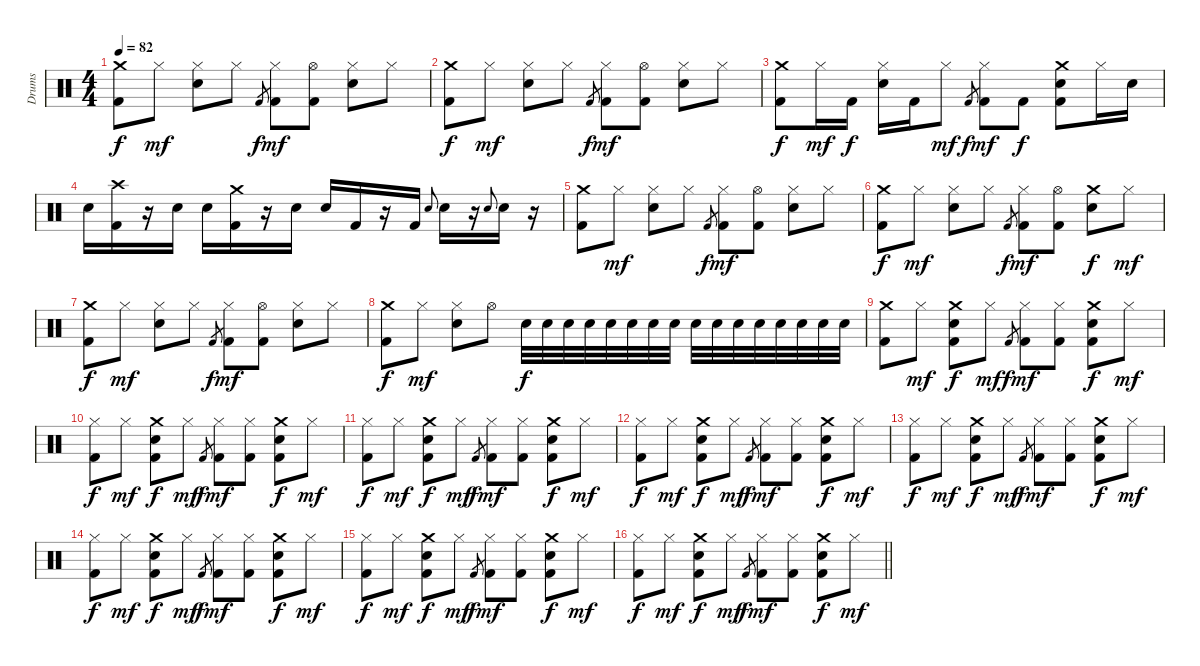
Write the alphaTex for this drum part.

\track ("Drums" "Drums") {instrument percussion}
\staff {score}
\articulation defaults
\ts (4 4)
\tempo 82
\clef neutral
\ks c
("Crash medium (hit)" "Kick (hit) 2").8{dy f} "Hi-Hat (closed)".8{dy mf} ("Hi-Hat (closed)" "Snare (hit) 2").8 "Hi-Hat (closed)".8 "Kick (hit) 2".8{gr dy f} ("Hi-Hat (closed)" "Kick (hit) 2").8{dy mf} ("Hi-Hat (open)" "Kick (hit) 2").8 ("Hi-Hat (closed)" "Snare (hit) 2").8 "Hi-Hat (closed)".8 |
("Crash medium (hit)" "Kick (hit) 2").8{dy f} "Hi-Hat (closed)".8{dy mf} ("Hi-Hat (closed)" "Snare (hit) 2").8 "Hi-Hat (closed)".8 "Kick (hit) 2".8{gr dy f} ("Hi-Hat (closed)" "Kick (hit) 2").8{dy mf} ("Hi-Hat (open)" "Kick (hit) 2").8 ("Hi-Hat (closed)" "Snare (hit) 2").8 "Hi-Hat (closed)".8 |
("Crash medium (hit)" "Kick (hit) 2").8{dy f} "Hi-Hat (closed)".16{dy mf} "Kick (hit) 2".16{dy f} ("Hi-Hat (closed)" "Snare (hit) 2").16 "Kick (hit) 2".16 "Hi-Hat (closed)".8{dy mf} "Kick (hit) 2".8{gr dy f} ("Hi-Hat (closed)" "Kick (hit) 2").8{dy mf} "Kick (hit) 2".8{dy f} ("Crash medium (hit)" "Snare (hit) 2" "Kick (hit) 2").8 "Hi-Hat (closed)".16 "Snare (hit) 2".16 |
"Snare (hit) 2".16 ("Crash high (hit)" "Kick (hit) 2").16 r.16 "Snare (hit) 2".16 "Snare (hit) 2".16 ("Crash medium (hit)" "Kick (hit) 2").16 r.16 "Snare (hit) 2".16 "Snare (hit) 2".16 "Kick (hit) 2".16 r.16 "Kick (hit) 2".16 "Snare (hit) 2".8{gr onbeat} "Snare (hit) 2".16 r.16 "Snare (hit) 2".8{gr onbeat} "Snare (hit) 2".16 r.16 |
("Crash medium (hit)" "Kick (hit) 2").8 "Hi-Hat (closed)".8{dy mf} ("Hi-Hat (closed)" "Snare (hit) 2").8 "Hi-Hat (closed)".8 "Kick (hit) 2".8{gr dy f} ("Hi-Hat (closed)" "Kick (hit) 2").8{dy mf} ("Hi-Hat (open)" "Kick (hit) 2").8 ("Hi-Hat (closed)" "Snare (hit) 2").8 "Hi-Hat (closed)".8 |
("Crash medium (hit)" "Kick (hit) 2").8{dy f} "Hi-Hat (closed)".8{dy mf} ("Hi-Hat (closed)" "Snare (hit) 2").8 "Hi-Hat (closed)".8 "Kick (hit) 2".8{gr dy f} ("Hi-Hat (closed)" "Kick (hit) 2").8{dy mf} ("Hi-Hat (open)" "Kick (hit) 2").8 ("Crash medium (hit)" "Snare (hit) 2").8{dy f} "Hi-Hat (closed)".8{dy mf} |
("Crash medium (hit)" "Kick (hit) 2").8{dy f} "Hi-Hat (closed)".8{dy mf} ("Hi-Hat (closed)" "Snare (hit) 2").8 "Hi-Hat (closed)".8 "Kick (hit) 2".8{gr dy f} ("Hi-Hat (closed)" "Kick (hit) 2").8{dy mf} ("Hi-Hat (open)" "Kick (hit) 2").8 ("Hi-Hat (closed)" "Snare (hit) 2").8 "Hi-Hat (closed)".8 |
("Crash medium (hit)" "Kick (hit) 2").8{dy f} "Hi-Hat (closed)".8{dy mf} ("Hi-Hat (closed)" "Snare (hit) 2").8 "Hi-Hat (open)".8 "Snare (hit) 2".32{dy f} "Snare (hit) 2".32 "Snare (hit) 2".32 "Snare (hit) 2".32 "Snare (hit) 2".32 "Snare (hit) 2".32 "Snare (hit) 2".32 "Snare (hit) 2".32 "Snare (hit) 2".32 "Snare (hit) 2".32 "Snare (hit) 2".32 "Snare (hit) 2".32 "Snare (hit) 2".32 "Snare (hit) 2".32 "Snare (hit) 2".32 "Snare (hit) 2".32 |
("Crash medium (hit)" "Kick (hit) 2").8 "Hi-Hat (closed)".8{dy mf} ("Crash medium (hit)" "Snare (hit) 2" "Kick (hit) 2").8{dy f} "Hi-Hat (closed)".8{dy mf} "Kick (hit) 2".8{gr dy f} ("Hi-Hat (closed)" "Kick (hit) 2").8{dy mf} ("Hi-Hat (closed)" "Kick (hit) 2").8 ("Crash medium (hit)" "Snare (hit) 2" "Kick (hit) 2").8{dy f} "Hi-Hat (closed)".8{dy mf} |
("Hi-Hat (closed)" "Kick (hit) 2").8{dy f} "Hi-Hat (closed)".8{dy mf} ("Crash medium (hit)" "Snare (hit) 2" "Kick (hit) 2").8{dy f} "Hi-Hat (closed)".8{dy mf} "Kick (hit) 2".8{gr dy f} ("Hi-Hat (closed)" "Kick (hit) 2").8{dy mf} ("Hi-Hat (closed)" "Kick (hit) 2").8 ("Crash medium (hit)" "Snare (hit) 2" "Kick (hit) 2").8{dy f} "Hi-Hat (closed)".8{dy mf} |
("Hi-Hat (closed)" "Kick (hit) 2").8{dy f} "Hi-Hat (closed)".8{dy mf} ("Crash medium (hit)" "Snare (hit) 2" "Kick (hit) 2").8{dy f} "Hi-Hat (closed)".8{dy mf} "Kick (hit) 2".8{gr dy f} ("Hi-Hat (closed)" "Kick (hit) 2").8{dy mf} ("Hi-Hat (closed)" "Kick (hit) 2").8 ("Crash medium (hit)" "Snare (hit) 2" "Kick (hit) 2").8{dy f} "Hi-Hat (closed)".8{dy mf} |
("Hi-Hat (closed)" "Kick (hit) 2").8{dy f} "Hi-Hat (closed)".8{dy mf} ("Crash medium (hit)" "Snare (hit) 2" "Kick (hit) 2").8{dy f} "Hi-Hat (closed)".8{dy mf} "Kick (hit) 2".8{gr dy f} ("Hi-Hat (closed)" "Kick (hit) 2").8{dy mf} ("Hi-Hat (closed)" "Kick (hit) 2").8 ("Crash medium (hit)" "Snare (hit) 2" "Kick (hit) 2").8{dy f} "Hi-Hat (closed)".8{dy mf} |
("Hi-Hat (closed)" "Kick (hit) 2").8{dy f} "Hi-Hat (closed)".8{dy mf} ("Crash medium (hit)" "Snare (hit) 2" "Kick (hit) 2").8{dy f} "Hi-Hat (closed)".8{dy mf} "Kick (hit) 2".8{gr dy f} ("Hi-Hat (closed)" "Kick (hit) 2").8{dy mf} ("Hi-Hat (closed)" "Kick (hit) 2").8 ("Crash medium (hit)" "Snare (hit) 2" "Kick (hit) 2").8{dy f} "Hi-Hat (closed)".8{dy mf} |
("Hi-Hat (closed)" "Kick (hit) 2").8{dy f} "Hi-Hat (closed)".8{dy mf} ("Crash medium (hit)" "Snare (hit) 2" "Kick (hit) 2").8{dy f} "Hi-Hat (closed)".8{dy mf} "Kick (hit) 2".8{gr dy f} ("Hi-Hat (closed)" "Kick (hit) 2").8{dy mf} ("Hi-Hat (closed)" "Kick (hit) 2").8 ("Crash medium (hit)" "Snare (hit) 2" "Kick (hit) 2").8{dy f} "Hi-Hat (closed)".8{dy mf} |
("Hi-Hat (closed)" "Kick (hit) 2").8{dy f} "Hi-Hat (closed)".8{dy mf} ("Crash medium (hit)" "Snare (hit) 2" "Kick (hit) 2").8{dy f} "Hi-Hat (closed)".8{dy mf} "Kick (hit) 2".8{gr dy f} ("Hi-Hat (closed)" "Kick (hit) 2").8{dy mf} ("Hi-Hat (closed)" "Kick (hit) 2").8 ("Crash medium (hit)" "Snare (hit) 2" "Kick (hit) 2").8{dy f} "Hi-Hat (closed)".8{dy mf} |
\barLineRight lightlight
("Hi-Hat (closed)" "Kick (hit) 2").8{dy f} "Hi-Hat (closed)".8{dy mf} ("Crash medium (hit)" "Snare (hit) 2" "Kick (hit) 2").8{dy f} "Hi-Hat (closed)".8{dy mf} "Kick (hit) 2".8{gr dy f} ("Hi-Hat (closed)" "Kick (hit) 2").8{dy mf} ("Hi-Hat (closed)" "Kick (hit) 2").8 ("Crash medium (hit)" "Snare (hit) 2" "Kick (hit) 2").8{dy f} "Hi-Hat (closed)".8{dy mf}
